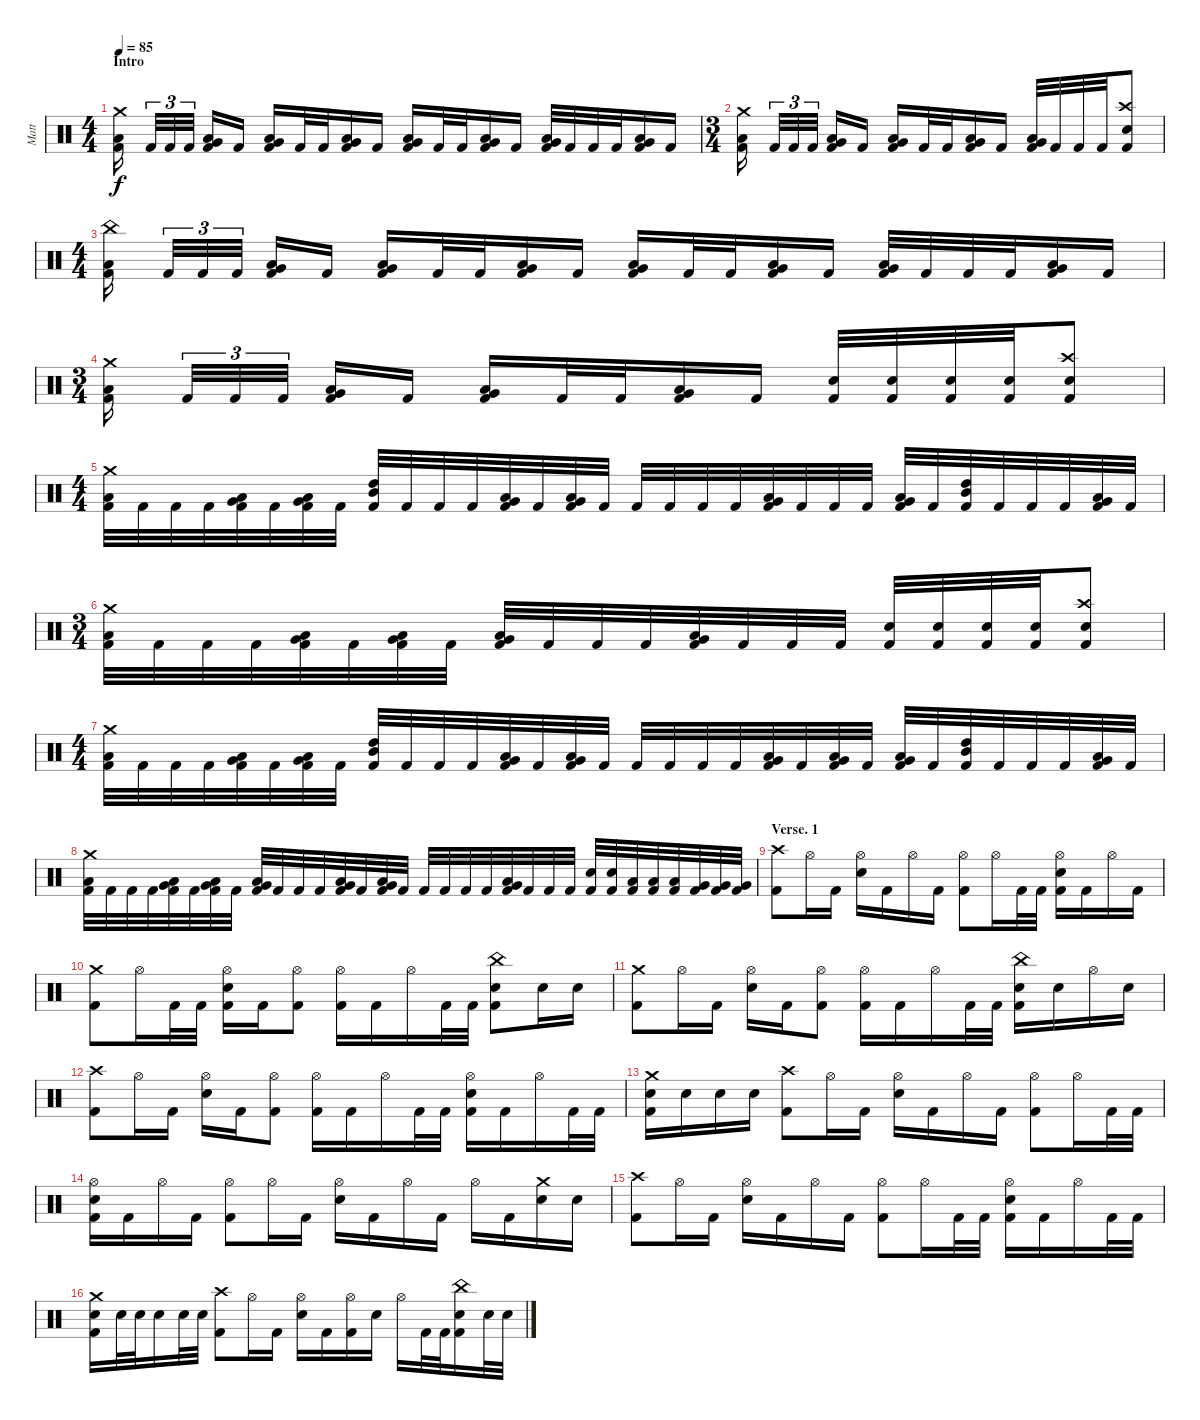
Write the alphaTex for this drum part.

\track ("Matt" "Matt") {instrument percussion}
\staff {score}
\articulation defaults
\ts (4 4)
\section ("" "Intro")
\tempo 85
\clef neutral
\ks c
("Crash medium (hit)" "Low Tom (hit)" "Kick (hit) 2").16{dy f} "Kick (hit) 2".32{tu (3 2)} "Kick (hit) 2".32{tu (3 2)} "Kick (hit) 2".32{tu (3 2)} ("Low Tom (hit)" "Very Low Tom (hit)" "Kick (hit) 2").16 "Kick (hit) 2".16 ("Low Tom (hit)" "Very Low Tom (hit)" "Kick (hit) 2").16 "Kick (hit) 2".32 "Kick (hit) 2".32 ("Low Tom (hit)" "Very Low Tom (hit)" "Kick (hit) 2").16 "Kick (hit) 2".16 ("Low Tom (hit)" "Very Low Tom (hit)" "Kick (hit) 2").16 "Kick (hit) 2".32 "Kick (hit) 2".32 ("Low Tom (hit)" "Very Low Tom (hit)" "Kick (hit) 2").16 "Kick (hit) 2".16 ("Low Tom (hit)" "Very Low Tom (hit)" "Kick (hit) 2").32 "Kick (hit) 2".32 "Kick (hit) 2".32 "Kick (hit) 2".32 ("Low Tom (hit)" "Very Low Tom (hit)" "Kick (hit) 2").16 "Kick (hit) 2".16 |
\ts (3 4)
("Crash medium (hit)" "Low Tom (hit)" "Kick (hit) 2").16 "Kick (hit) 2".32{tu (3 2)} "Kick (hit) 2".32{tu (3 2)} "Kick (hit) 2".32{tu (3 2)} ("Low Tom (hit)" "Very Low Tom (hit)" "Kick (hit) 2").16 "Kick (hit) 2".16 ("Low Tom (hit)" "Very Low Tom (hit)" "Kick (hit) 2").16 "Kick (hit) 2".32 "Kick (hit) 2".32 ("Low Tom (hit)" "Very Low Tom (hit)" "Kick (hit) 2").16 "Kick (hit) 2".16 ("Low Tom (hit)" "Very Low Tom (hit)" "Kick (hit) 2").32 "Kick (hit) 2".32 "Kick (hit) 2".32 "Kick (hit) 2".32 ("Crash high (hit)" "Electric Snare (hit)" "Kick (hit) 2").8 |
\ts (4 4)
("China (hit)" "Low Tom (hit)" "Kick (hit) 2").16 "Kick (hit) 2".32{tu (3 2)} "Kick (hit) 2".32{tu (3 2)} "Kick (hit) 2".32{tu (3 2)} ("Low Tom (hit)" "Very Low Tom (hit)" "Kick (hit) 2").16 "Kick (hit) 2".16 ("Low Tom (hit)" "Very Low Tom (hit)" "Kick (hit) 2").16 "Kick (hit) 2".32 "Kick (hit) 2".32 ("Low Tom (hit)" "Very Low Tom (hit)" "Kick (hit) 2").16 "Kick (hit) 2".16 ("Low Tom (hit)" "Very Low Tom (hit)" "Kick (hit) 2").16 "Kick (hit) 2".32 "Kick (hit) 2".32 ("Low Tom (hit)" "Very Low Tom (hit)" "Kick (hit) 2").16 "Kick (hit) 2".16 ("Low Tom (hit)" "Very Low Tom (hit)" "Kick (hit) 2").32 "Kick (hit) 2".32 "Kick (hit) 2".32 "Kick (hit) 2".32 ("Low Tom (hit)" "Very Low Tom (hit)" "Kick (hit) 2").16 "Kick (hit) 2".16 |
\ts (3 4)
("Crash medium (hit)" "Low Tom (hit)" "Kick (hit) 2").16 "Kick (hit) 2".32{tu (3 2)} "Kick (hit) 2".32{tu (3 2)} "Kick (hit) 2".32{tu (3 2)} ("Low Tom (hit)" "Very Low Tom (hit)" "Kick (hit) 2").16 "Kick (hit) 2".16 ("Low Tom (hit)" "Very Low Tom (hit)" "Kick (hit) 2").16 "Kick (hit) 2".32 "Kick (hit) 2".32 ("Low Tom (hit)" "Very Low Tom (hit)" "Kick (hit) 2").16 "Kick (hit) 2".16 ("Electric Snare (hit)" "Kick (hit) 2").32 ("Electric Snare (hit)" "Kick (hit) 2").32 ("Electric Snare (hit)" "Kick (hit) 2").32 ("Electric Snare (hit)" "Kick (hit) 2").32 ("Crash high (hit)" "Electric Snare (hit)" "Kick (hit) 2").8 |
\ts (4 4)
("Crash medium (hit)" "Low Tom (hit)" "Kick (hit) 2").32 "Kick (hit) 2".32 "Kick (hit) 2".32 "Kick (hit) 2".32 ("Low Tom (hit)" "Very Low Tom (hit)" "Kick (hit) 2").32 "Kick (hit) 2".32 ("Low Tom (hit)" "Very Low Tom (hit)" "Kick (hit) 2").32 "Kick (hit) 2".32 ("High Tom (hit)" "Mid Tom (hit)" "Kick (hit) 2").32 "Kick (hit) 2".32 "Kick (hit) 2".32 "Kick (hit) 2".32 ("Low Tom (hit)" "Very Low Tom (hit)" "Kick (hit) 2").32 "Kick (hit) 2".32 ("Low Tom (hit)" "Very Low Tom (hit)" "Kick (hit) 2").32 "Kick (hit) 2".32 "Kick (hit) 2".32 "Kick (hit) 2".32 "Kick (hit) 2".32 "Kick (hit) 2".32 ("Low Tom (hit)" "Very Low Tom (hit)" "Kick (hit) 2").32 "Kick (hit) 2".32 "Kick (hit) 2".32 "Kick (hit) 2".32 ("Low Tom (hit)" "Very Low Tom (hit)" "Kick (hit) 2").32 "Kick (hit) 2".32 ("High Tom (hit)" "Mid Tom (hit)" "Kick (hit) 2").32 "Kick (hit) 2".32 "Kick (hit) 2".32 "Kick (hit) 2".32 ("Low Tom (hit)" "Very Low Tom (hit)" "Kick (hit) 2").32 "Kick (hit) 2".32 |
\ts (3 4)
("Crash medium (hit)" "Low Tom (hit)" "Kick (hit) 2").32 "Kick (hit) 2".32 "Kick (hit) 2".32 "Kick (hit) 2".32 ("Low Tom (hit)" "Very Low Tom (hit)" "Kick (hit) 2").32 "Kick (hit) 2".32 ("Low Tom (hit)" "Very Low Tom (hit)" "Kick (hit) 2").32 "Kick (hit) 2".32 ("Low Tom (hit)" "Very Low Tom (hit)" "Kick (hit) 2").32 "Kick (hit) 2".32 "Kick (hit) 2".32 "Kick (hit) 2".32 ("Low Tom (hit)" "Very Low Tom (hit)" "Kick (hit) 2").32 "Kick (hit) 2".32 "Kick (hit) 2".32 "Kick (hit) 2".32 ("Electric Snare (hit)" "Kick (hit) 2").32 ("Electric Snare (hit)" "Kick (hit) 2").32 ("Electric Snare (hit)" "Kick (hit) 2").32 ("Electric Snare (hit)" "Kick (hit) 2").32 ("Crash high (hit)" "Electric Snare (hit)" "Kick (hit) 2").8 |
\ts (4 4)
("Crash medium (hit)" "Low Tom (hit)" "Kick (hit) 2").32 "Kick (hit) 2".32 "Kick (hit) 2".32 "Kick (hit) 2".32 ("Low Tom (hit)" "Very Low Tom (hit)" "Kick (hit) 2").32 "Kick (hit) 2".32 ("Low Tom (hit)" "Very Low Tom (hit)" "Kick (hit) 2").32 "Kick (hit) 2".32 ("High Tom (hit)" "Mid Tom (hit)" "Kick (hit) 2").32 "Kick (hit) 2".32 "Kick (hit) 2".32 "Kick (hit) 2".32 ("Low Tom (hit)" "Very Low Tom (hit)" "Kick (hit) 2").32 "Kick (hit) 2".32 ("Low Tom (hit)" "Very Low Tom (hit)" "Kick (hit) 2").32 "Kick (hit) 2".32 "Kick (hit) 2".32 "Kick (hit) 2".32 "Kick (hit) 2".32 "Kick (hit) 2".32 ("Low Tom (hit)" "Very Low Tom (hit)" "Kick (hit) 2").32 "Kick (hit) 2".32 ("Low Tom (hit)" "Very Low Tom (hit)" "Kick (hit) 2").32 "Kick (hit) 2".32 ("Low Tom (hit)" "Very Low Tom (hit)" "Kick (hit) 2").32 "Kick (hit) 2".32 ("High Tom (hit)" "Mid Tom (hit)" "Kick (hit) 2").32 "Kick (hit) 2".32 "Kick (hit) 2".32 "Kick (hit) 2".32 ("Low Tom (hit)" "Very Low Tom (hit)" "Kick (hit) 2").32 "Kick (hit) 2".32 |
("Crash medium (hit)" "Low Tom (hit)" "Kick (hit) 2").32 "Kick (hit) 2".32 "Kick (hit) 2".32 "Kick (hit) 2".32 ("Low Tom (hit)" "Very Low Tom (hit)" "Kick (hit) 2").32 "Kick (hit) 2".32 ("Low Tom (hit)" "Very Low Tom (hit)" "Kick (hit) 2").32 "Kick (hit) 2".32 ("Low Tom (hit)" "Very Low Tom (hit)" "Kick (hit) 2").32 "Kick (hit) 2".32 "Kick (hit) 2".32 "Kick (hit) 2".32 ("Low Tom (hit)" "Very Low Tom (hit)" "Kick (hit) 2").32 "Kick (hit) 2".32 ("Low Tom (hit)" "Very Low Tom (hit)" "Kick (hit) 2").32 "Kick (hit) 2".32 "Kick (hit) 2".32 "Kick (hit) 2".32 "Kick (hit) 2".32 "Kick (hit) 2".32 ("Low Tom (hit)" "Very Low Tom (hit)" "Kick (hit) 2").32 "Kick (hit) 2".32 "Kick (hit) 2".32 "Kick (hit) 2".32 ("Electric Snare (hit)" "Kick (hit) 2").32 ("Electric Snare (hit)" "Kick (hit) 2").32 ("Low Tom (hit)" "Kick (hit) 2").32 ("Low Tom (hit)" "Kick (hit) 2").32 ("Low Tom (hit)" "Kick (hit) 2").32 ("Very Low Tom (hit)" "Kick (hit) 2").32 ("Very Low Tom (hit)" "Kick (hit) 2").32 ("Very Low Tom (hit)" "Kick (hit) 2").32 |
\section ("" "Verse. 1")
("Crash high (hit)" "Kick (hit) 2").8 "Hi-Hat (open)".16 "Kick (hit) 2".16 ("Hi-Hat (open)" "Electric Snare (hit)").16 "Kick (hit) 2".16 "Hi-Hat (open)".16 "Kick (hit) 2".16 ("Hi-Hat (open)" "Kick (hit) 2").8 "Hi-Hat (open)".16 "Kick (hit) 2".32 "Kick (hit) 2".32 ("Hi-Hat (open)" "Electric Snare (hit)" "Kick (hit) 2").16 "Kick (hit) 2".16 "Hi-Hat (open)".16 "Kick (hit) 2".16 |
("Crash medium (hit)" "Kick (hit) 2").8 "Hi-Hat (open)".16 "Kick (hit) 2".32 "Kick (hit) 2".32 ("Hi-Hat (open)" "Electric Snare (hit)" "Kick (hit) 2").16 "Kick (hit) 2".16 ("Hi-Hat (open)" "Kick (hit) 2").8 ("Hi-Hat (open)" "Kick (hit) 2").16 "Kick (hit) 2".16 "Hi-Hat (open)".16 "Kick (hit) 2".32 "Kick (hit) 2".32 ("China (hit)" "Electric Snare (hit)" "Kick (hit) 2").8 "Electric Snare (hit)".16 "Electric Snare (hit)".16 |
("Crash medium (hit)" "Kick (hit) 2").8 "Hi-Hat (open)".16 "Kick (hit) 2".16 ("Hi-Hat (open)" "Electric Snare (hit)").16 "Kick (hit) 2".16 ("Hi-Hat (open)" "Kick (hit) 2").8 ("Hi-Hat (open)" "Kick (hit) 2").16 "Kick (hit) 2".16 "Hi-Hat (open)".16 "Kick (hit) 2".32 "Kick (hit) 2".32 ("China (hit)" "Electric Snare (hit)" "Kick (hit) 2").16 "Electric Snare (hit)".16 "Hi-Hat (open)".16 "Electric Snare (hit)".16 |
("Crash high (hit)" "Kick (hit) 2").8 "Hi-Hat (open)".16 "Kick (hit) 2".16 ("Hi-Hat (open)" "Electric Snare (hit)").16 "Kick (hit) 2".16 ("Hi-Hat (open)" "Kick (hit) 2").8 ("Hi-Hat (open)" "Kick (hit) 2").16 "Kick (hit) 2".16 "Hi-Hat (open)".16 "Kick (hit) 2".32 "Kick (hit) 2".32 ("Hi-Hat (open)" "Electric Snare (hit)" "Kick (hit) 2").16 "Kick (hit) 2".16 "Hi-Hat (open)".16 "Kick (hit) 2".32 "Kick (hit) 2".32 |
("Crash medium (hit)" "Electric Snare (hit)" "Kick (hit) 2").16 "Electric Snare (hit)".16 "Electric Snare (hit)".16 "Electric Snare (hit)".16 ("Crash high (hit)" "Kick (hit) 2").8 "Hi-Hat (open)".16 "Kick (hit) 2".16 ("Hi-Hat (open)" "Electric Snare (hit)").16 "Kick (hit) 2".16 "Hi-Hat (open)".16 "Kick (hit) 2".16 ("Hi-Hat (open)" "Kick (hit) 2").8 "Hi-Hat (open)".16 "Kick (hit) 2".32 "Kick (hit) 2".32 |
("Hi-Hat (open)" "Electric Snare (hit)" "Kick (hit) 2").16 "Kick (hit) 2".16 "Hi-Hat (open)".16 "Kick (hit) 2".16 ("Hi-Hat (open)" "Kick (hit) 2").8 "Hi-Hat (open)".16 "Kick (hit) 2".16 ("Hi-Hat (open)" "Electric Snare (hit)").16 "Kick (hit) 2".16 "Hi-Hat (open)".16 "Kick (hit) 2".16 "Hi-Hat (open)".16 "Kick (hit) 2".16 ("Crash medium (hit)" "Electric Snare (hit)").16 "Electric Snare (hit)".16 |
("Crash high (hit)" "Kick (hit) 2").8 "Hi-Hat (open)".16 "Kick (hit) 2".16 ("Hi-Hat (open)" "Electric Snare (hit)").16 "Kick (hit) 2".16 "Hi-Hat (open)".16 "Kick (hit) 2".16 ("Hi-Hat (open)" "Kick (hit) 2").8 "Hi-Hat (open)".16 "Kick (hit) 2".32 "Kick (hit) 2".32 ("Hi-Hat (open)" "Electric Snare (hit)" "Kick (hit) 2").16 "Kick (hit) 2".16 "Hi-Hat (open)".16 "Kick (hit) 2".32 "Kick (hit) 2".32 |
("Crash medium (hit)" "Electric Snare (hit)" "Kick (hit) 2").16 "Electric Snare (hit)".32 "Electric Snare (hit)".32 "Electric Snare (hit)".16 "Electric Snare (hit)".32 "Electric Snare (hit)".32 ("Crash high (hit)" "Kick (hit) 2").8 "Hi-Hat (open)".16 "Kick (hit) 2".16 ("Hi-Hat (open)" "Electric Snare (hit)").16 "Kick (hit) 2".16 ("Hi-Hat (open)" "Kick (hit) 2").16 "Electric Snare (hit)".16 "Hi-Hat (open)".16 "Kick (hit) 2".32 "Kick (hit) 2".32 ("China (hit)" "Electric Snare (hit)" "Kick (hit) 2").16 "Electric Snare (hit)".32 "Electric Snare (hit)".32
